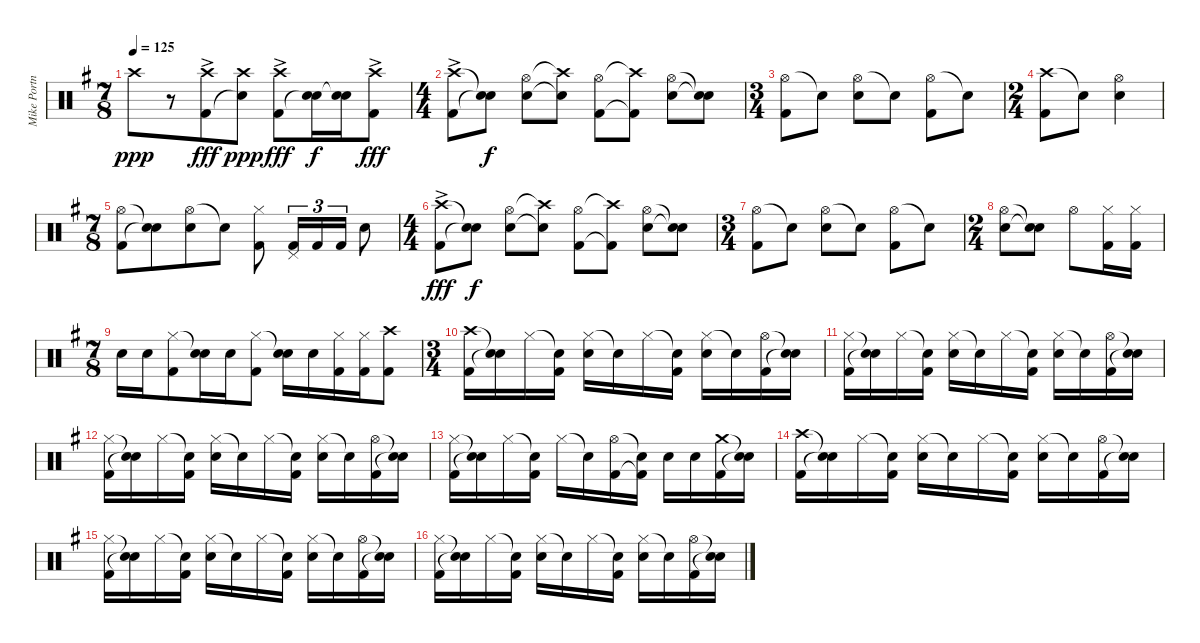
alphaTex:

\track ("Mike Portnoy - Drums" "Mike Portn") {instrument percussion}
\staff {score}
\articulation defaults
\ts (7 8)
\tempo 125
\clef neutral
\ks g "Crash high (hit)".8{dy ppp}
r.8 ("Crash high (hit)"{ac} "Kick (hit) 2").8{dy fff} ("Crash high (hit)" "Snare (hit)"{t}).8{dy ppp} ("Crash high (hit)"{ac} "Kick (hit) 2").8{dy fff} ("Snare (hit) 2" "Snare (hit)"{t}).16{dy f} ("Snare (hit) 2" "Snare (hit)"{t}).16 ("Crash high (hit)"{ac} "Kick (hit) 2").8{dy fff} |
\ts (4 4)
("Crash high (hit)"{ac} "Kick (hit) 2").8 ("Snare (hit)"{t} "Snare (hit)"{t}).8{dy f} ("Hi-Hat (open)" "Snare (hit) 2").8 ("Crash high (hit)"{t} "Snare (hit)"{t}).8 ("Hi-Hat (open)" "Kick (hit) 2").8 ("Crash high (hit)"{t} "Kick (hit) 2"{t}).8 ("Hi-Hat (open)" "Snare (hit) 2").8 ("Snare (hit)"{t} "Snare (hit)"{t}).8 |
\ts (3 4)
("Hi-Hat (open)" "Kick (hit) 2").8 "Snare (hit)"{t}.8 ("Hi-Hat (open)" "Snare (hit) 2").8 "Snare (hit)"{t}.8 ("Hi-Hat (open)" "Kick (hit) 2").8 "Snare (hit)"{t}.8 |
\ts (2 4)
("Crash high (hit)" "Kick (hit) 2").8 "Snare (hit)"{t}.8 ("Hi-Hat (open)" "Snare (hit) 2").4 |
\ts (7 8)
("Hi-Hat (open)" "Kick (hit) 2").8 ("Snare (hit)"{t} "Snare (hit)"{t}).8 ("Hi-Hat (open)" "Electric Snare (hit)").8 "Snare (hit)"{t}.8 ("Hi-Hat (closed)" "Kick (hit) 2").8 ("Pedal Hi-Hat (hit)" "Kick (hit) 2").16{tu (3 2)} "Kick (hit) 2".16{tu (3 2)} "Kick (hit) 2".16{tu (3 2)} "Snare (hit) 2".8 |
\ts (4 4)
("Crash high (hit)"{ac} "Kick (hit) 2").8{dy fff} ("Snare (hit)"{t} "Snare (hit)"{t}).8{dy f} ("Hi-Hat (open)" "Snare (hit) 2").8 ("Crash high (hit)"{t} "Snare (hit)"{t}).8 ("Hi-Hat (open)" "Kick (hit) 2").8 ("Crash high (hit)"{t} "Kick (hit) 2"{t}).8 ("Hi-Hat (open)" "Snare (hit) 2").8 ("Snare (hit)"{t} "Snare (hit)"{t}).8 |
\ts (3 4)
("Hi-Hat (open)" "Kick (hit) 2").8 "Snare (hit)"{t}.8 ("Hi-Hat (open)" "Snare (hit) 2").8 "Snare (hit)"{t}.8 ("Hi-Hat (open)" "Kick (hit) 2").8 "Snare (hit)"{t}.8 |
\ts (2 4)
("Hi-Hat (open)" "Electric Snare (hit)").8 ("Snare (hit)"{t} "Snare (hit)"{t}).8 "Hi-Hat (open)".8 ("Hi-Hat (closed)" "Kick (hit) 2").16 ("Hi-Hat (closed)" "Kick (hit) 2").16 |
\ts (7 8)
"Electric Snare (hit)".16 "Electric Snare (hit)".16 ("Hi-Hat (closed)" "Kick (hit) 2").8 ("Snare (hit)"{t} "Electric Snare (hit)").16 "Electric Snare (hit)".16 ("Hi-Hat (closed)" "Kick (hit) 2").8 ("Snare (hit)"{t} "Electric Snare (hit)").16 "Electric Snare (hit)".16 ("Hi-Hat (closed)" "Kick (hit) 2").16 ("Hi-Hat (closed)" "Kick (hit) 2").16 ("Crash high (hit)" "Kick (hit) 2").8 |
\ts (3 4)
("Crash high (hit)" "Kick (hit) 2").16 ("Snare (hit)"{t} "Snare (hit)"{t}).16 "Hi-Hat (closed)".16 ("Snare (hit)"{t} "Kick (hit) 2").16 ("Hi-Hat (closed)" "Snare (hit) 2").16 "Snare (hit)"{t}.16 "Hi-Hat (closed)".16 ("Snare (hit)"{t} "Kick (hit) 2").16 ("Hi-Hat (closed)" "Snare (hit) 2").16 "Snare (hit)"{t}.16 ("Hi-Hat (open)" "Kick (hit) 2").16 ("Snare (hit)"{t} "Snare (hit)"{t}).16 |
("Hi-Hat (closed)" "Kick (hit) 2").16 ("Snare (hit)"{t} "Snare (hit)"{t}).16 "Hi-Hat (closed)".16 ("Snare (hit)"{t} "Kick (hit) 2").16 ("Hi-Hat (closed)" "Snare (hit) 2").16 "Snare (hit)"{t}.16 "Hi-Hat (closed)".16 ("Snare (hit)"{t} "Kick (hit) 2").16 ("Hi-Hat (closed)" "Snare (hit) 2").16 "Snare (hit)"{t}.16 ("Hi-Hat (open)" "Kick (hit) 2").16 ("Snare (hit)"{t} "Snare (hit)"{t}).16 |
("Hi-Hat (closed)" "Kick (hit) 2").16 ("Snare (hit)"{t} "Snare (hit)"{t}).16 "Hi-Hat (closed)".16 ("Snare (hit)"{t} "Kick (hit) 2").16 ("Hi-Hat (closed)" "Snare (hit) 2").16 "Snare (hit)"{t}.16 "Hi-Hat (closed)".16 ("Snare (hit)"{t} "Kick (hit) 2").16 ("Hi-Hat (closed)" "Snare (hit) 2").16 "Snare (hit)"{t}.16 ("Hi-Hat (open)" "Kick (hit) 2").16 ("Snare (hit)"{t} "Snare (hit)"{t}).16 |
("Hi-Hat (closed)" "Kick (hit) 2").16 ("Snare (hit)"{t} "Snare (hit)"{t}).16 "Hi-Hat (closed)".16 ("Snare (hit)"{t} "Kick (hit) 2").16 "Hi-Hat (closed)".16 "Snare (hit)"{t}.16 ("Hi-Hat (open)" "Kick (hit) 2").16 ("Snare (hit)"{t} "Kick (hit) 2"{t}).16 "Snare (hit) 2".16 "Snare (hit) 2".16 ("Crash medium (hit)" "Kick (hit) 2").16 ("Snare (hit)"{t} "Snare (hit)"{t}).16 |
("Crash high (hit)" "Kick (hit) 2").16 ("Snare (hit)"{t} "Snare (hit)"{t}).16 "Hi-Hat (closed)".16 ("Snare (hit)"{t} "Kick (hit) 2").16 ("Hi-Hat (closed)" "Snare (hit) 2").16 "Snare (hit)"{t}.16 "Hi-Hat (closed)".16 ("Snare (hit)"{t} "Kick (hit) 2").16 ("Hi-Hat (closed)" "Snare (hit) 2").16 "Snare (hit)"{t}.16 ("Hi-Hat (open)" "Kick (hit) 2").16 ("Snare (hit)"{t} "Snare (hit)"{t}).16 |
("Hi-Hat (closed)" "Kick (hit) 2").16 ("Snare (hit)"{t} "Snare (hit)"{t}).16 "Hi-Hat (closed)".16 ("Snare (hit)"{t} "Kick (hit) 2").16 ("Hi-Hat (closed)" "Snare (hit) 2").16 "Snare (hit)"{t}.16 "Hi-Hat (closed)".16 ("Snare (hit)"{t} "Kick (hit) 2").16 ("Hi-Hat (closed)" "Snare (hit) 2").16 "Snare (hit)"{t}.16 ("Hi-Hat (open)" "Kick (hit) 2").16 ("Snare (hit)"{t} "Snare (hit)"{t}).16 |
("Hi-Hat (closed)" "Kick (hit) 2").16 ("Snare (hit)"{t} "Snare (hit)"{t}).16 "Hi-Hat (closed)".16 ("Snare (hit)"{t} "Kick (hit) 2").16 ("Hi-Hat (closed)" "Snare (hit) 2").16 "Snare (hit)"{t}.16 "Hi-Hat (closed)".16 ("Snare (hit)"{t} "Kick (hit) 2").16 ("Hi-Hat (closed)" "Snare (hit) 2").16 "Snare (hit)"{t}.16 ("Hi-Hat (open)" "Kick (hit) 2").16 ("Snare (hit)"{t} "Snare (hit)"{t}).16
